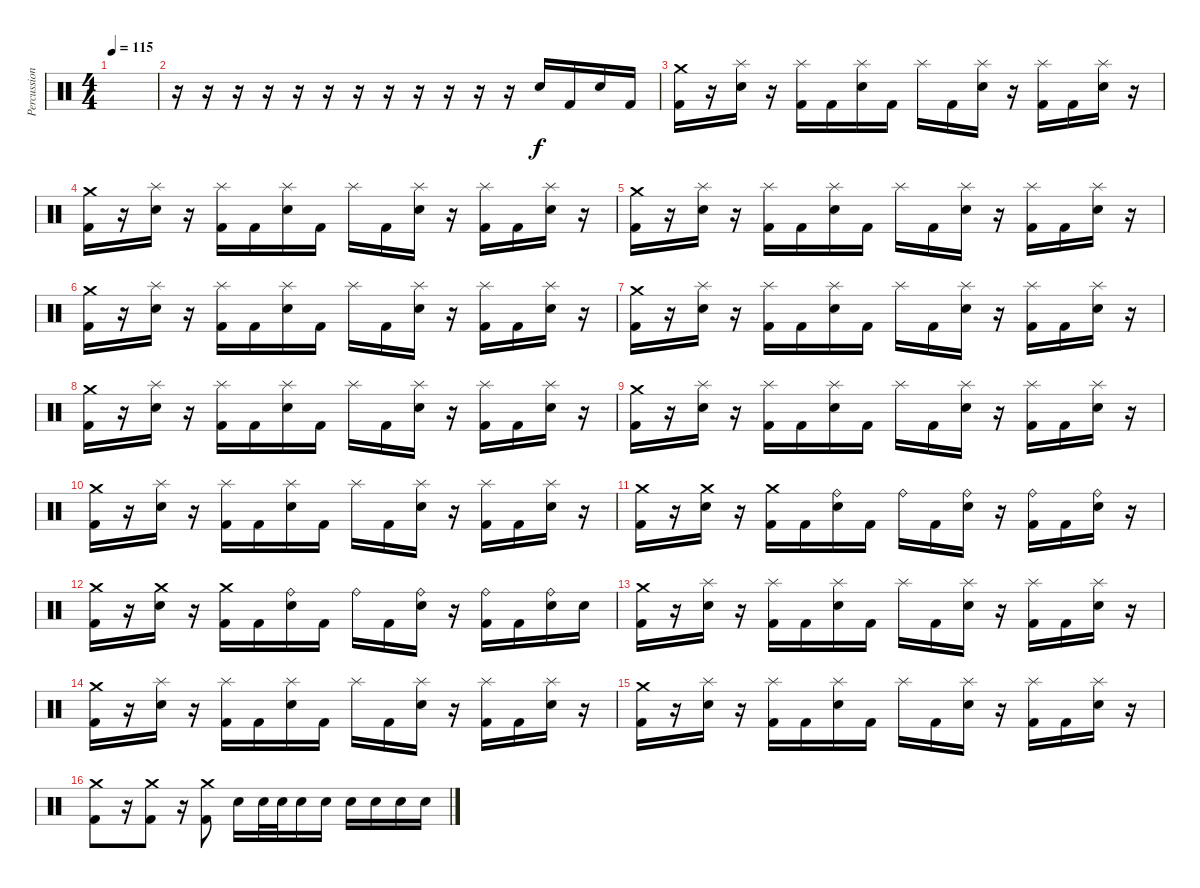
\track ("Percussioni" "Percussion") {instrument percussion}
\staff {score}
\articulation defaults
\ts (4 4)
\tempo 115
\clef neutral
\ks c
|
r.16 r.16 r.16 r.16 r.16 r.16 r.16 r.16 r.16 r.16 r.16 r.16 "Electric Snare (hit)".16 "Kick (hit) 2".16 "Electric Snare (hit)".16 "Kick (hit) 2".16 |
("Crash medium (hit)" "Kick (hit) 2").16 r.16 ("Splash (hit)" "Electric Snare (hit)").16 r.16 ("Splash (hit)" "Kick (hit) 2").16 "Kick (hit) 2".16 ("Splash (hit)" "Electric Snare (hit)").16 "Kick (hit) 2".16 "Splash (hit)".16 "Kick (hit) 2".16 ("Splash (hit)" "Electric Snare (hit)").16 r.16 ("Splash (hit)" "Kick (hit) 2").16 "Kick (hit) 2".16 ("Splash (hit)" "Electric Snare (hit)").16 r.16 |
("Crash medium (hit)" "Kick (hit) 2").16 r.16 ("Splash (hit)" "Electric Snare (hit)").16 r.16 ("Splash (hit)" "Kick (hit) 2").16 "Kick (hit) 2".16 ("Splash (hit)" "Electric Snare (hit)").16 "Kick (hit) 2".16 "Splash (hit)".16 "Kick (hit) 2".16 ("Splash (hit)" "Electric Snare (hit)").16 r.16 ("Splash (hit)" "Kick (hit) 2").16 "Kick (hit) 2".16 ("Splash (hit)" "Electric Snare (hit)").16 r.16 |
("Crash medium (hit)" "Kick (hit) 2").16 r.16 ("Splash (hit)" "Electric Snare (hit)").16 r.16 ("Splash (hit)" "Kick (hit) 2").16 "Kick (hit) 2".16 ("Splash (hit)" "Electric Snare (hit)").16 "Kick (hit) 2".16 "Splash (hit)".16 "Kick (hit) 2".16 ("Splash (hit)" "Electric Snare (hit)").16 r.16 ("Splash (hit)" "Kick (hit) 2").16 "Kick (hit) 2".16 ("Splash (hit)" "Electric Snare (hit)").16 r.16 |
("Crash medium (hit)" "Kick (hit) 2").16 r.16 ("Splash (hit)" "Electric Snare (hit)").16 r.16 ("Splash (hit)" "Kick (hit) 2").16 "Kick (hit) 2".16 ("Splash (hit)" "Electric Snare (hit)").16 "Kick (hit) 2".16 "Splash (hit)".16 "Kick (hit) 2".16 ("Splash (hit)" "Electric Snare (hit)").16 r.16 ("Splash (hit)" "Kick (hit) 2").16 "Kick (hit) 2".16 ("Splash (hit)" "Electric Snare (hit)").16 r.16 |
("Crash medium (hit)" "Kick (hit) 2").16 r.16 ("Splash (hit)" "Electric Snare (hit)").16 r.16 ("Splash (hit)" "Kick (hit) 2").16 "Kick (hit) 2".16 ("Splash (hit)" "Electric Snare (hit)").16 "Kick (hit) 2".16 "Splash (hit)".16 "Kick (hit) 2".16 ("Splash (hit)" "Electric Snare (hit)").16 r.16 ("Splash (hit)" "Kick (hit) 2").16 "Kick (hit) 2".16 ("Splash (hit)" "Electric Snare (hit)").16 r.16 |
("Crash medium (hit)" "Kick (hit) 2").16 r.16 ("Splash (hit)" "Electric Snare (hit)").16 r.16 ("Splash (hit)" "Kick (hit) 2").16 "Kick (hit) 2".16 ("Splash (hit)" "Electric Snare (hit)").16 "Kick (hit) 2".16 "Splash (hit)".16 "Kick (hit) 2".16 ("Splash (hit)" "Electric Snare (hit)").16 r.16 ("Splash (hit)" "Kick (hit) 2").16 "Kick (hit) 2".16 ("Splash (hit)" "Electric Snare (hit)").16 r.16 |
("Crash medium (hit)" "Kick (hit) 2").16 r.16 ("Splash (hit)" "Electric Snare (hit)").16 r.16 ("Splash (hit)" "Kick (hit) 2").16 "Kick (hit) 2".16 ("Splash (hit)" "Electric Snare (hit)").16 "Kick (hit) 2".16 "Splash (hit)".16 "Kick (hit) 2".16 ("Splash (hit)" "Electric Snare (hit)").16 r.16 ("Splash (hit)" "Kick (hit) 2").16 "Kick (hit) 2".16 ("Splash (hit)" "Electric Snare (hit)").16 r.16 |
("Crash medium (hit)" "Kick (hit) 2").16 r.16 ("Splash (hit)" "Electric Snare (hit)").16 r.16 ("Splash (hit)" "Kick (hit) 2").16 "Kick (hit) 2".16 ("Splash (hit)" "Electric Snare (hit)").16 "Kick (hit) 2".16 "Splash (hit)".16 "Kick (hit) 2".16 ("Splash (hit)" "Electric Snare (hit)").16 r.16 ("Splash (hit)" "Kick (hit) 2").16 "Kick (hit) 2".16 ("Splash (hit)" "Electric Snare (hit)").16 r.16 |
("Crash medium (hit)" "Kick (hit) 2").16 r.16 ("Crash medium (hit)" "Electric Snare (hit)").16 r.16 ("Crash medium (hit)" "Kick (hit) 2").16 "Kick (hit) 2".16 ("Ride (bell)" "Electric Snare (hit)").16 "Kick (hit) 2".16 "Ride (bell)".16 "Kick (hit) 2".16 ("Ride (bell)" "Electric Snare (hit)").16 r.16 ("Ride (bell)" "Kick (hit) 2").16 "Kick (hit) 2".16 ("Ride (bell)" "Electric Snare (hit)").16 r.16 |
("Crash medium (hit)" "Kick (hit) 2").16 r.16 ("Crash medium (hit)" "Electric Snare (hit)").16 r.16 ("Crash medium (hit)" "Kick (hit) 2").16 "Kick (hit) 2".16 ("Ride (bell)" "Electric Snare (hit)").16 "Kick (hit) 2".16 "Ride (bell)".16 "Kick (hit) 2".16 ("Ride (bell)" "Electric Snare (hit)").16 r.16 ("Ride (bell)" "Kick (hit) 2").16 "Kick (hit) 2".16 ("Ride (bell)" "Electric Snare (hit)").16 "Electric Snare (hit)".16 |
("Crash medium (hit)" "Kick (hit) 2").16 r.16 ("Splash (hit)" "Electric Snare (hit)").16 r.16 ("Splash (hit)" "Kick (hit) 2").16 "Kick (hit) 2".16 ("Splash (hit)" "Electric Snare (hit)").16 "Kick (hit) 2".16 "Splash (hit)".16 "Kick (hit) 2".16 ("Splash (hit)" "Electric Snare (hit)").16 r.16 ("Splash (hit)" "Kick (hit) 2").16 "Kick (hit) 2".16 ("Splash (hit)" "Electric Snare (hit)").16 r.16 |
("Crash medium (hit)" "Kick (hit) 2").16 r.16 ("Splash (hit)" "Electric Snare (hit)").16 r.16 ("Splash (hit)" "Kick (hit) 2").16 "Kick (hit) 2".16 ("Splash (hit)" "Electric Snare (hit)").16 "Kick (hit) 2".16 "Splash (hit)".16 "Kick (hit) 2".16 ("Splash (hit)" "Electric Snare (hit)").16 r.16 ("Splash (hit)" "Kick (hit) 2").16 "Kick (hit) 2".16 ("Splash (hit)" "Electric Snare (hit)").16 r.16 |
("Crash medium (hit)" "Kick (hit) 2").16 r.16 ("Splash (hit)" "Electric Snare (hit)").16 r.16 ("Splash (hit)" "Kick (hit) 2").16 "Kick (hit) 2".16 ("Splash (hit)" "Electric Snare (hit)").16 "Kick (hit) 2".16 "Splash (hit)".16 "Kick (hit) 2".16 ("Splash (hit)" "Electric Snare (hit)").16 r.16 ("Splash (hit)" "Kick (hit) 2").16 "Kick (hit) 2".16 ("Splash (hit)" "Electric Snare (hit)").16 r.16 |
("Crash medium (hit)" "Kick (hit) 2").8 r.16 ("Crash medium (hit)" "Kick (hit) 2").8 r.16 ("Crash medium (hit)" "Kick (hit) 2").8 "Electric Snare (hit)".16 "Electric Snare (hit)".32 "Electric Snare (hit)".32 "Electric Snare (hit)".16 "Electric Snare (hit)".16 "Electric Snare (hit)".16 "Electric Snare (hit)".16 "Electric Snare (hit)".16 "Electric Snare (hit)".16
